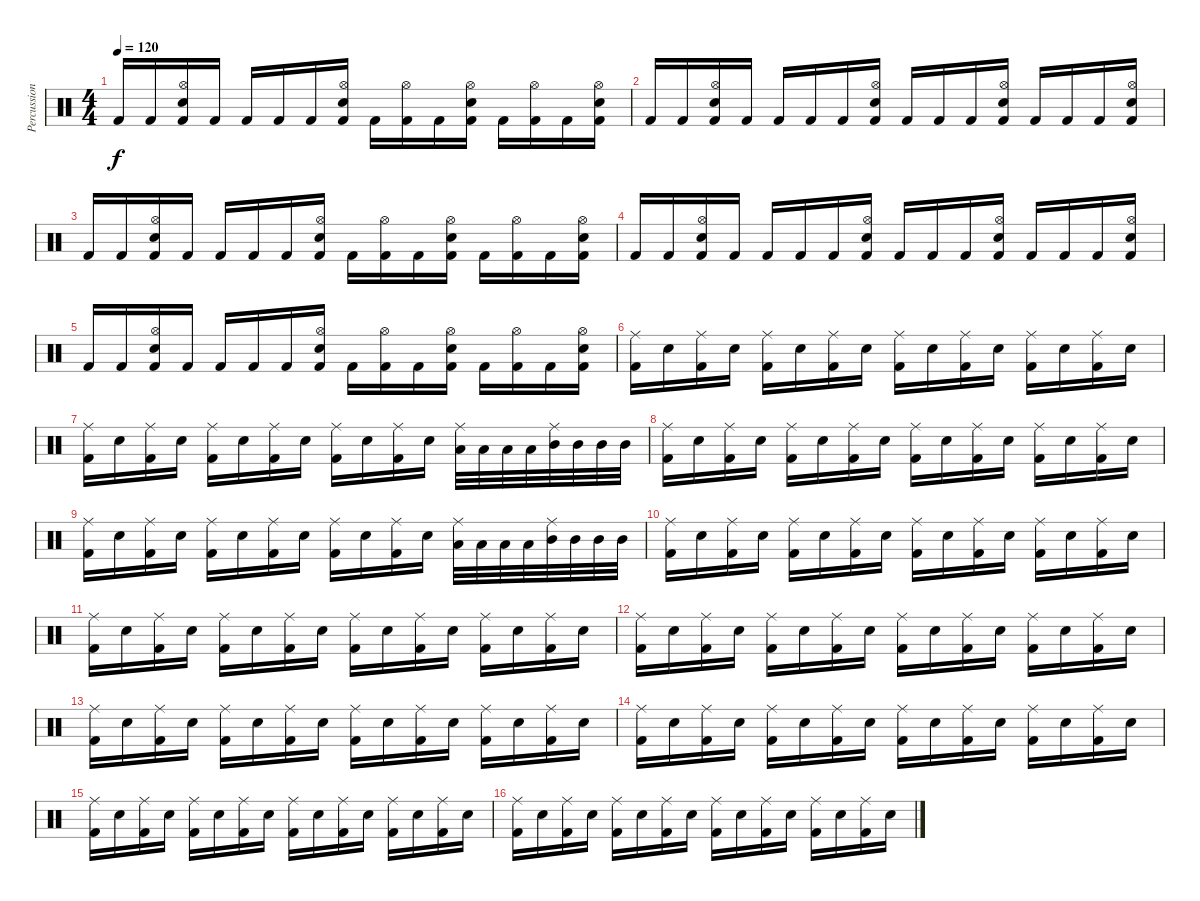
\track ("Percussion" "Percussion") {instrument percussion}
\staff {score}
\articulation defaults
\ts (4 4)
\tempo 120
\clef neutral
\ks c "Kick (hit) 2".16{dy f} "Kick (hit) 2".16
("Hi-Hat (open)" "Electric Snare (hit)" "Kick (hit) 2").16 "Kick (hit) 2".16 "Kick (hit) 2".16 "Kick (hit) 2".16 "Kick (hit) 2".16 ("Hi-Hat (open)" "Electric Snare (hit)" "Kick (hit) 2").16 "Kick (hit) 2".16 ("Hi-Hat (open)" "Kick (hit) 2").16 "Kick (hit) 2".16 ("Hi-Hat (open)" "Electric Snare (hit)" "Kick (hit) 2").16 "Kick (hit) 2".16 ("Hi-Hat (open)" "Kick (hit) 2").16 "Kick (hit) 2".16 ("Hi-Hat (open)" "Electric Snare (hit)" "Kick (hit) 2").16 |
"Kick (hit) 2".16 "Kick (hit) 2".16 ("Hi-Hat (open)" "Electric Snare (hit)" "Kick (hit) 2").16 "Kick (hit) 2".16 "Kick (hit) 2".16 "Kick (hit) 2".16 "Kick (hit) 2".16 ("Hi-Hat (open)" "Electric Snare (hit)" "Kick (hit) 2").16 "Kick (hit) 2".16 "Kick (hit) 2".16 "Kick (hit) 2".16 ("Hi-Hat (open)" "Electric Snare (hit)" "Kick (hit) 2").16 "Kick (hit) 2".16 "Kick (hit) 2".16 "Kick (hit) 2".16 ("Hi-Hat (open)" "Electric Snare (hit)" "Kick (hit) 2").16 |
"Kick (hit) 2".16 "Kick (hit) 2".16 ("Hi-Hat (open)" "Electric Snare (hit)" "Kick (hit) 2").16 "Kick (hit) 2".16 "Kick (hit) 2".16 "Kick (hit) 2".16 "Kick (hit) 2".16 ("Hi-Hat (open)" "Electric Snare (hit)" "Kick (hit) 2").16 "Kick (hit) 2".16 ("Hi-Hat (open)" "Kick (hit) 2").16 "Kick (hit) 2".16 ("Hi-Hat (open)" "Electric Snare (hit)" "Kick (hit) 2").16 "Kick (hit) 2".16 ("Hi-Hat (open)" "Kick (hit) 2").16 "Kick (hit) 2".16 ("Hi-Hat (open)" "Electric Snare (hit)" "Kick (hit) 2").16 |
"Kick (hit) 2".16 "Kick (hit) 2".16 ("Hi-Hat (open)" "Electric Snare (hit)" "Kick (hit) 2").16 "Kick (hit) 2".16 "Kick (hit) 2".16 "Kick (hit) 2".16 "Kick (hit) 2".16 ("Hi-Hat (open)" "Electric Snare (hit)" "Kick (hit) 2").16 "Kick (hit) 2".16 "Kick (hit) 2".16 "Kick (hit) 2".16 ("Hi-Hat (open)" "Electric Snare (hit)" "Kick (hit) 2").16 "Kick (hit) 2".16 "Kick (hit) 2".16 "Kick (hit) 2".16 ("Hi-Hat (open)" "Electric Snare (hit)" "Kick (hit) 2").16 |
"Kick (hit) 2".16 "Kick (hit) 2".16 ("Hi-Hat (open)" "Electric Snare (hit)" "Kick (hit) 2").16 "Kick (hit) 2".16 "Kick (hit) 2".16 "Kick (hit) 2".16 "Kick (hit) 2".16 ("Hi-Hat (open)" "Electric Snare (hit)" "Kick (hit) 2").16 "Kick (hit) 2".16 ("Hi-Hat (open)" "Kick (hit) 2").16 "Kick (hit) 2".16 ("Hi-Hat (open)" "Electric Snare (hit)" "Kick (hit) 2").16 "Kick (hit) 2".16 ("Hi-Hat (open)" "Kick (hit) 2").16 "Kick (hit) 2".16 ("Hi-Hat (open)" "Electric Snare (hit)" "Kick (hit) 2").16 |
("Ride (middle)" "Kick (hit) 2").16 "Snare (hit) 2".16 ("Ride (middle)" "Kick (hit) 2").16 "Snare (hit) 2".16 ("Ride (middle)" "Kick (hit) 2").16 "Snare (hit) 2".16 ("Ride (middle)" "Kick (hit) 2").16 "Snare (hit) 2".16 ("Ride (middle)" "Kick (hit) 2").16 "Snare (hit) 2".16 ("Ride (middle)" "Kick (hit) 2").16 "Snare (hit) 2".16 ("Ride (middle)" "Kick (hit) 2").16 "Snare (hit) 2".16 ("Ride (middle)" "Kick (hit) 2").16 "Snare (hit) 2".16 |
("Ride (middle)" "Kick (hit) 2").16 "Snare (hit) 2".16 ("Ride (middle)" "Kick (hit) 2").16 "Snare (hit) 2".16 ("Ride (middle)" "Kick (hit) 2").16 "Snare (hit) 2".16 ("Ride (middle)" "Kick (hit) 2").16 "Snare (hit) 2".16 ("Ride (middle)" "Kick (hit) 2").16 "Snare (hit) 2".16 ("Ride (middle)" "Kick (hit) 2").16 "Snare (hit) 2".16 ("Ride (middle)" "Low Tom (hit)").32 "Low Tom (hit)".32 "Low Tom (hit)".32 "Low Tom (hit)".32 ("Ride (middle)" "Mid Tom (hit)").32 "Mid Tom (hit)".32 "Mid Tom (hit)".32 "Mid Tom (hit)".32 |
("Ride (middle)" "Kick (hit) 2").16 "Snare (hit) 2".16 ("Ride (middle)" "Kick (hit) 2").16 "Snare (hit) 2".16 ("Ride (middle)" "Kick (hit) 2").16 "Snare (hit) 2".16 ("Ride (middle)" "Kick (hit) 2").16 "Snare (hit) 2".16 ("Ride (middle)" "Kick (hit) 2").16 "Snare (hit) 2".16 ("Ride (middle)" "Kick (hit) 2").16 "Snare (hit) 2".16 ("Ride (middle)" "Kick (hit) 2").16 "Snare (hit) 2".16 ("Ride (middle)" "Kick (hit) 2").16 "Snare (hit) 2".16 |
("Ride (middle)" "Kick (hit) 2").16 "Snare (hit) 2".16 ("Ride (middle)" "Kick (hit) 2").16 "Snare (hit) 2".16 ("Ride (middle)" "Kick (hit) 2").16 "Snare (hit) 2".16 ("Ride (middle)" "Kick (hit) 2").16 "Snare (hit) 2".16 ("Ride (middle)" "Kick (hit) 2").16 "Snare (hit) 2".16 ("Ride (middle)" "Kick (hit) 2").16 "Snare (hit) 2".16 ("Ride (middle)" "Low Tom (hit)").32 "Low Tom (hit)".32 "Low Tom (hit)".32 "Low Tom (hit)".32 ("Ride (middle)" "Mid Tom (hit)").32 "Mid Tom (hit)".32 "Mid Tom (hit)".32 "Mid Tom (hit)".32 |
("Ride (middle)" "Kick (hit) 2").16 "Snare (hit) 2".16 ("Ride (middle)" "Kick (hit) 2").16 "Snare (hit) 2".16 ("Ride (middle)" "Kick (hit) 2").16 "Snare (hit) 2".16 ("Ride (middle)" "Kick (hit) 2").16 "Snare (hit) 2".16 ("Ride (middle)" "Kick (hit) 2").16 "Snare (hit) 2".16 ("Ride (middle)" "Kick (hit) 2").16 "Snare (hit) 2".16 ("Ride (middle)" "Kick (hit) 2").16 "Snare (hit) 2".16 ("Ride (middle)" "Kick (hit) 2").16 "Snare (hit) 2".16 |
("Ride (middle)" "Kick (hit) 2").16 "Snare (hit) 2".16 ("Ride (middle)" "Kick (hit) 2").16 "Snare (hit) 2".16 ("Ride (middle)" "Kick (hit) 2").16 "Snare (hit) 2".16 ("Ride (middle)" "Kick (hit) 2").16 "Snare (hit) 2".16 ("Ride (middle)" "Kick (hit) 2").16 "Snare (hit) 2".16 ("Ride (middle)" "Kick (hit) 2").16 "Snare (hit) 2".16 ("Ride (middle)" "Kick (hit) 2").16 "Snare (hit) 2".16 ("Ride (middle)" "Kick (hit) 2").16 "Snare (hit) 2".16 |
("Ride (middle)" "Kick (hit) 2").16 "Snare (hit) 2".16 ("Ride (middle)" "Kick (hit) 2").16 "Snare (hit) 2".16 ("Ride (middle)" "Kick (hit) 2").16 "Snare (hit) 2".16 ("Ride (middle)" "Kick (hit) 2").16 "Snare (hit) 2".16 ("Ride (middle)" "Kick (hit) 2").16 "Snare (hit) 2".16 ("Ride (middle)" "Kick (hit) 2").16 "Snare (hit) 2".16 ("Ride (middle)" "Kick (hit) 2").16 "Snare (hit) 2".16 ("Ride (middle)" "Kick (hit) 2").16 "Snare (hit) 2".16 |
("Ride (middle)" "Kick (hit) 2").16 "Snare (hit) 2".16 ("Ride (middle)" "Kick (hit) 2").16 "Snare (hit) 2".16 ("Ride (middle)" "Kick (hit) 2").16 "Snare (hit) 2".16 ("Ride (middle)" "Kick (hit) 2").16 "Snare (hit) 2".16 ("Ride (middle)" "Kick (hit) 2").16 "Snare (hit) 2".16 ("Ride (middle)" "Kick (hit) 2").16 "Snare (hit) 2".16 ("Ride (middle)" "Kick (hit) 2").16 "Snare (hit) 2".16 ("Ride (middle)" "Kick (hit) 2").16 "Snare (hit) 2".16 |
("Ride (middle)" "Kick (hit) 2").16 "Snare (hit) 2".16 ("Ride (middle)" "Kick (hit) 2").16 "Snare (hit) 2".16 ("Ride (middle)" "Kick (hit) 2").16 "Snare (hit) 2".16 ("Ride (middle)" "Kick (hit) 2").16 "Snare (hit) 2".16 ("Ride (middle)" "Kick (hit) 2").16 "Snare (hit) 2".16 ("Ride (middle)" "Kick (hit) 2").16 "Snare (hit) 2".16 ("Ride (middle)" "Kick (hit) 2").16 "Snare (hit) 2".16 ("Ride (middle)" "Kick (hit) 2").16 "Snare (hit) 2".16 |
("Ride (middle)" "Kick (hit) 2").16 "Snare (hit) 2".16 ("Ride (middle)" "Kick (hit) 2").16 "Snare (hit) 2".16 ("Ride (middle)" "Kick (hit) 2").16 "Snare (hit) 2".16 ("Ride (middle)" "Kick (hit) 2").16 "Snare (hit) 2".16 ("Ride (middle)" "Kick (hit) 2").16 "Snare (hit) 2".16 ("Ride (middle)" "Kick (hit) 2").16 "Snare (hit) 2".16 ("Ride (middle)" "Kick (hit) 2").16 "Snare (hit) 2".16 ("Ride (middle)" "Kick (hit) 2").16 "Snare (hit) 2".16 |
("Ride (middle)" "Kick (hit) 2").16 "Snare (hit) 2".16 ("Ride (middle)" "Kick (hit) 2").16 "Snare (hit) 2".16 ("Ride (middle)" "Kick (hit) 2").16 "Snare (hit) 2".16 ("Ride (middle)" "Kick (hit) 2").16 "Snare (hit) 2".16 ("Ride (middle)" "Kick (hit) 2").16 "Snare (hit) 2".16 ("Ride (middle)" "Kick (hit) 2").16 "Snare (hit) 2".16 ("Ride (middle)" "Kick (hit) 2").16 "Snare (hit) 2".16 ("Ride (middle)" "Kick (hit) 2").16 "Snare (hit) 2".16
